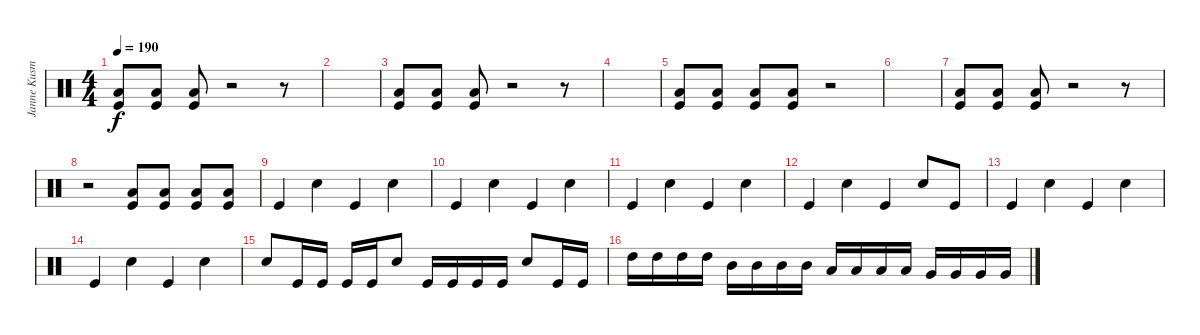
\track ("Janne Kusmin" "Janne Kusm") {instrument percussion}
\staff {score}
\articulation defaults
\ts (4 4)
\tempo 190
\clef neutral
\ks c
("Low Tom (hit)" "Kick (hit)").8{dy f} ("Low Tom (hit)" "Kick (hit)").8 ("Low Tom (hit)" "Kick (hit)").8 r.2 r.8 |
|
("Low Tom (hit)" "Kick (hit)").8 ("Low Tom (hit)" "Kick (hit)").8 ("Low Tom (hit)" "Kick (hit)").8 r.2 r.8 |
|
("Low Tom (hit)" "Kick (hit)").8 ("Low Tom (hit)" "Kick (hit)").8 ("Low Tom (hit)" "Kick (hit)").8 ("Low Tom (hit)" "Kick (hit)").8 r.2 |
|
("Low Tom (hit)" "Kick (hit)").8 ("Low Tom (hit)" "Kick (hit)").8 ("Low Tom (hit)" "Kick (hit)").8 r.2 r.8 |
r.2 ("Low Tom (hit)" "Kick (hit)").8 ("Low Tom (hit)" "Kick (hit)").8 ("Low Tom (hit)" "Kick (hit)").8 ("Low Tom (hit)" "Kick (hit)").8 |
"Kick (hit)".4 "Electric Snare (hit)".4 "Kick (hit)".4 "Electric Snare (hit)".4 |
"Kick (hit)".4 "Electric Snare (hit)".4 "Kick (hit)".4 "Electric Snare (hit)".4 |
"Kick (hit)".4 "Electric Snare (hit)".4 "Kick (hit)".4 "Electric Snare (hit)".4 |
"Kick (hit)".4 "Electric Snare (hit)".4 "Kick (hit)".4 "Electric Snare (hit)".8 "Kick (hit)".8 |
"Kick (hit)".4 "Electric Snare (hit)".4 "Kick (hit)".4 "Electric Snare (hit)".4 |
"Kick (hit)".4 "Electric Snare (hit)".4 "Kick (hit)".4 "Electric Snare (hit)".4 |
"Electric Snare (hit)".8 "Kick (hit)".16 "Kick (hit)".16 "Kick (hit)".16 "Kick (hit)".16 "Electric Snare (hit)".8 "Kick (hit)".16 "Kick (hit)".16 "Kick (hit)".16 "Kick (hit)".16 "Electric Snare (hit)".8 "Kick (hit)".16 "Kick (hit)".16 |
"High Tom (hit)".16 "High Tom (hit)".16 "High Tom (hit)".16 "High Tom (hit)".16 "Mid Tom (hit)".16 "Mid Tom (hit)".16 "Mid Tom (hit)".16 "Mid Tom (hit)".16 "Low Tom (hit)".16 "Low Tom (hit)".16 "Low Tom (hit)".16 "Low Tom (hit)".16 "Very Low Tom (hit)".16 "Very Low Tom (hit)".16 "Very Low Tom (hit)".16 "Very Low Tom (hit)".16
